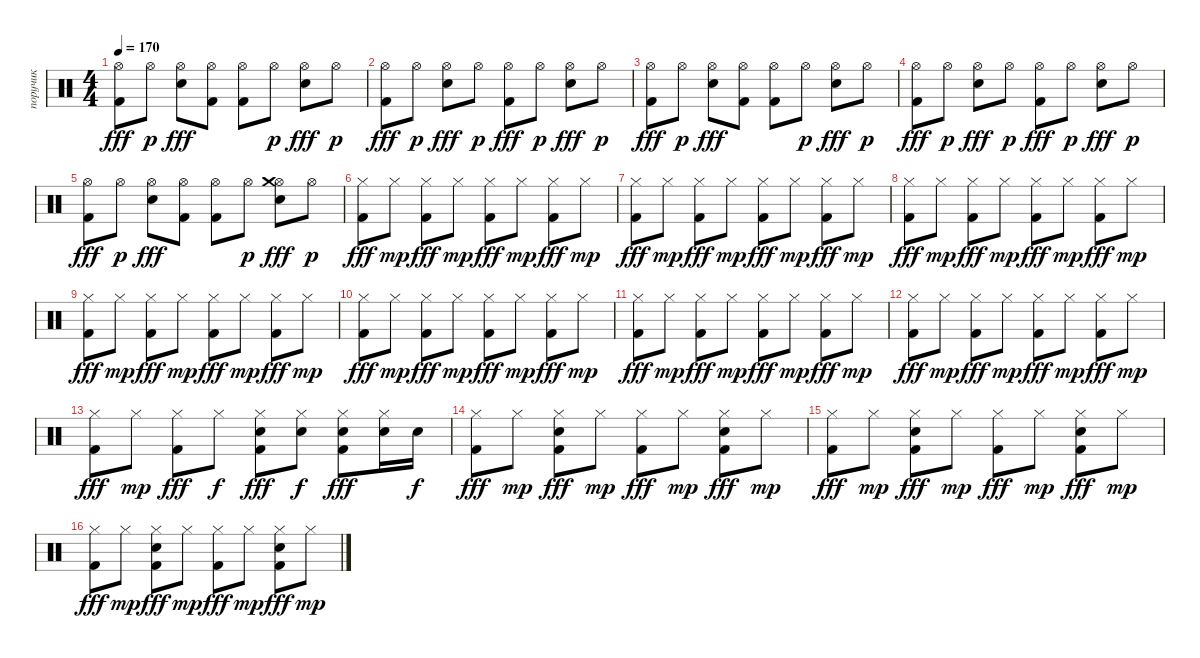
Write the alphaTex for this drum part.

\track ("поручик" "поручик") {instrument percussion}
\staff {score}
\articulation defaults
\ts (4 4)
\tempo 170
\clef neutral
\ks c
("Hi-Hat (open)" "Kick (hit) 2").8{dy fff} "Hi-Hat (open)".8{dy p} ("Hi-Hat (open)" "Electric Snare (hit)").8{dy fff} ("Hi-Hat (open)" "Kick (hit) 2").8 ("Hi-Hat (open)" "Kick (hit) 2").8 "Hi-Hat (open)".8{dy p} ("Hi-Hat (open)" "Electric Snare (hit)").8{dy fff} "Hi-Hat (open)".8{dy p} |
("Hi-Hat (open)" "Kick (hit) 2").8{dy fff} "Hi-Hat (open)".8{dy p} ("Hi-Hat (open)" "Electric Snare (hit)").8{dy fff} "Hi-Hat (open)".8{dy p} ("Hi-Hat (open)" "Kick (hit) 2").8{dy fff} "Hi-Hat (open)".8{dy p} ("Hi-Hat (open)" "Electric Snare (hit)").8{dy fff} "Hi-Hat (open)".8{dy p} |
("Hi-Hat (open)" "Kick (hit) 2").8{dy fff} "Hi-Hat (open)".8{dy p} ("Hi-Hat (open)" "Electric Snare (hit)").8{dy fff} ("Hi-Hat (open)" "Kick (hit) 2").8 ("Hi-Hat (open)" "Kick (hit) 2").8 "Hi-Hat (open)".8{dy p} ("Hi-Hat (open)" "Electric Snare (hit)").8{dy fff} "Hi-Hat (open)".8{dy p} |
("Hi-Hat (open)" "Kick (hit) 2").8{dy fff} "Hi-Hat (open)".8{dy p} ("Hi-Hat (open)" "Electric Snare (hit)").8{dy fff} "Hi-Hat (open)".8{dy p} ("Hi-Hat (open)" "Kick (hit) 2").8{dy fff} "Hi-Hat (open)".8{dy p} ("Hi-Hat (open)" "Electric Snare (hit)").8{dy fff} "Hi-Hat (open)".8{dy p} |
("Hi-Hat (open)" "Kick (hit) 2").8{dy fff} "Hi-Hat (open)".8{dy p} ("Hi-Hat (open)" "Electric Snare (hit)").8{dy fff} ("Hi-Hat (open)" "Kick (hit) 2").8 ("Hi-Hat (open)" "Kick (hit) 2").8 "Hi-Hat (open)".8{dy p} ("Hi-Hat (open)" "Crash medium (hit)" "Electric Snare (hit)").8{dy fff} "Hi-Hat (open)".8{dy p} |
("Hi-Hat (closed)" "Kick (hit) 2").8{dy fff} "Hi-Hat (closed)".8{dy mp} ("Hi-Hat (closed)" "Kick (hit) 2").8{dy fff} "Hi-Hat (closed)".8{dy mp} ("Hi-Hat (closed)" "Kick (hit) 2").8{dy fff} "Hi-Hat (closed)".8{dy mp} ("Hi-Hat (closed)" "Kick (hit) 2").8{dy fff} "Hi-Hat (closed)".8{dy mp} |
("Hi-Hat (closed)" "Kick (hit) 2").8{dy fff} "Hi-Hat (closed)".8{dy mp} ("Hi-Hat (closed)" "Kick (hit) 2").8{dy fff} "Hi-Hat (closed)".8{dy mp} ("Hi-Hat (closed)" "Kick (hit) 2").8{dy fff} "Hi-Hat (closed)".8{dy mp} ("Hi-Hat (closed)" "Kick (hit) 2").8{dy fff} "Hi-Hat (closed)".8{dy mp} |
("Hi-Hat (closed)" "Kick (hit) 2").8{dy fff} "Hi-Hat (closed)".8{dy mp} ("Hi-Hat (closed)" "Kick (hit) 2").8{dy fff} "Hi-Hat (closed)".8{dy mp} ("Hi-Hat (closed)" "Kick (hit) 2").8{dy fff} "Hi-Hat (closed)".8{dy mp} ("Hi-Hat (closed)" "Kick (hit) 2").8{dy fff} "Hi-Hat (closed)".8{dy mp} |
("Hi-Hat (closed)" "Kick (hit) 2").8{dy fff} "Hi-Hat (closed)".8{dy mp} ("Hi-Hat (closed)" "Kick (hit) 2").8{dy fff} "Hi-Hat (closed)".8{dy mp} ("Hi-Hat (closed)" "Kick (hit) 2").8{dy fff} "Hi-Hat (closed)".8{dy mp} ("Hi-Hat (closed)" "Kick (hit) 2").8{dy fff} "Hi-Hat (closed)".8{dy mp} |
("Hi-Hat (closed)" "Kick (hit) 2").8{dy fff} "Hi-Hat (closed)".8{dy mp} ("Hi-Hat (closed)" "Kick (hit) 2").8{dy fff} "Hi-Hat (closed)".8{dy mp} ("Hi-Hat (closed)" "Kick (hit) 2").8{dy fff} "Hi-Hat (closed)".8{dy mp} ("Hi-Hat (closed)" "Kick (hit) 2").8{dy fff} "Hi-Hat (closed)".8{dy mp} |
("Hi-Hat (closed)" "Kick (hit) 2").8{dy fff} "Hi-Hat (closed)".8{dy mp} ("Hi-Hat (closed)" "Kick (hit) 2").8{dy fff} "Hi-Hat (closed)".8{dy mp} ("Hi-Hat (closed)" "Kick (hit) 2").8{dy fff} "Hi-Hat (closed)".8{dy mp} ("Hi-Hat (closed)" "Kick (hit) 2").8{dy fff} "Hi-Hat (closed)".8{dy mp} |
("Hi-Hat (closed)" "Kick (hit) 2").8{dy fff} "Hi-Hat (closed)".8{dy mp} ("Hi-Hat (closed)" "Kick (hit) 2").8{dy fff} "Hi-Hat (closed)".8{dy mp} ("Hi-Hat (closed)" "Kick (hit) 2").8{dy fff} "Hi-Hat (closed)".8{dy mp} ("Hi-Hat (closed)" "Kick (hit) 2").8{dy fff} "Hi-Hat (closed)".8{dy mp} |
("Hi-Hat (closed)" "Kick (hit) 2").8{dy fff} "Hi-Hat (closed)".8{dy mp} ("Hi-Hat (closed)" "Kick (hit) 2").8{dy fff} "Hi-Hat (closed)".8{dy f} ("Hi-Hat (closed)" "Electric Snare (hit)" "Kick (hit) 2").8{dy fff} ("Hi-Hat (closed)" "Electric Snare (hit)").8{dy f} ("Hi-Hat (closed)" "Electric Snare (hit)" "Kick (hit) 2").8{dy fff} ("Hi-Hat (closed)" "Electric Snare (hit)").16 "Electric Snare (hit)".16{dy f} |
("Hi-Hat (closed)" "Kick (hit) 2").8{dy fff} "Hi-Hat (closed)".8{dy mp} ("Hi-Hat (closed)" "Electric Snare (hit)" "Kick (hit) 2").8{dy fff} "Hi-Hat (closed)".8{dy mp} ("Hi-Hat (closed)" "Kick (hit) 2").8{dy fff} "Hi-Hat (closed)".8{dy mp} ("Hi-Hat (closed)" "Electric Snare (hit)" "Kick (hit) 2").8{dy fff} "Hi-Hat (closed)".8{dy mp} |
("Hi-Hat (closed)" "Kick (hit) 2").8{dy fff} "Hi-Hat (closed)".8{dy mp} ("Hi-Hat (closed)" "Electric Snare (hit)" "Kick (hit) 2").8{dy fff} "Hi-Hat (closed)".8{dy mp} ("Hi-Hat (closed)" "Kick (hit) 2").8{dy fff} "Hi-Hat (closed)".8{dy mp} ("Hi-Hat (closed)" "Electric Snare (hit)" "Kick (hit) 2").8{dy fff} "Hi-Hat (closed)".8{dy mp} |
("Hi-Hat (closed)" "Kick (hit) 2").8{dy fff} "Hi-Hat (closed)".8{dy mp} ("Hi-Hat (closed)" "Electric Snare (hit)" "Kick (hit) 2").8{dy fff} "Hi-Hat (closed)".8{dy mp} ("Hi-Hat (closed)" "Kick (hit) 2").8{dy fff} "Hi-Hat (closed)".8{dy mp} ("Hi-Hat (closed)" "Electric Snare (hit)" "Kick (hit) 2").8{dy fff} "Hi-Hat (closed)".8{dy mp}
